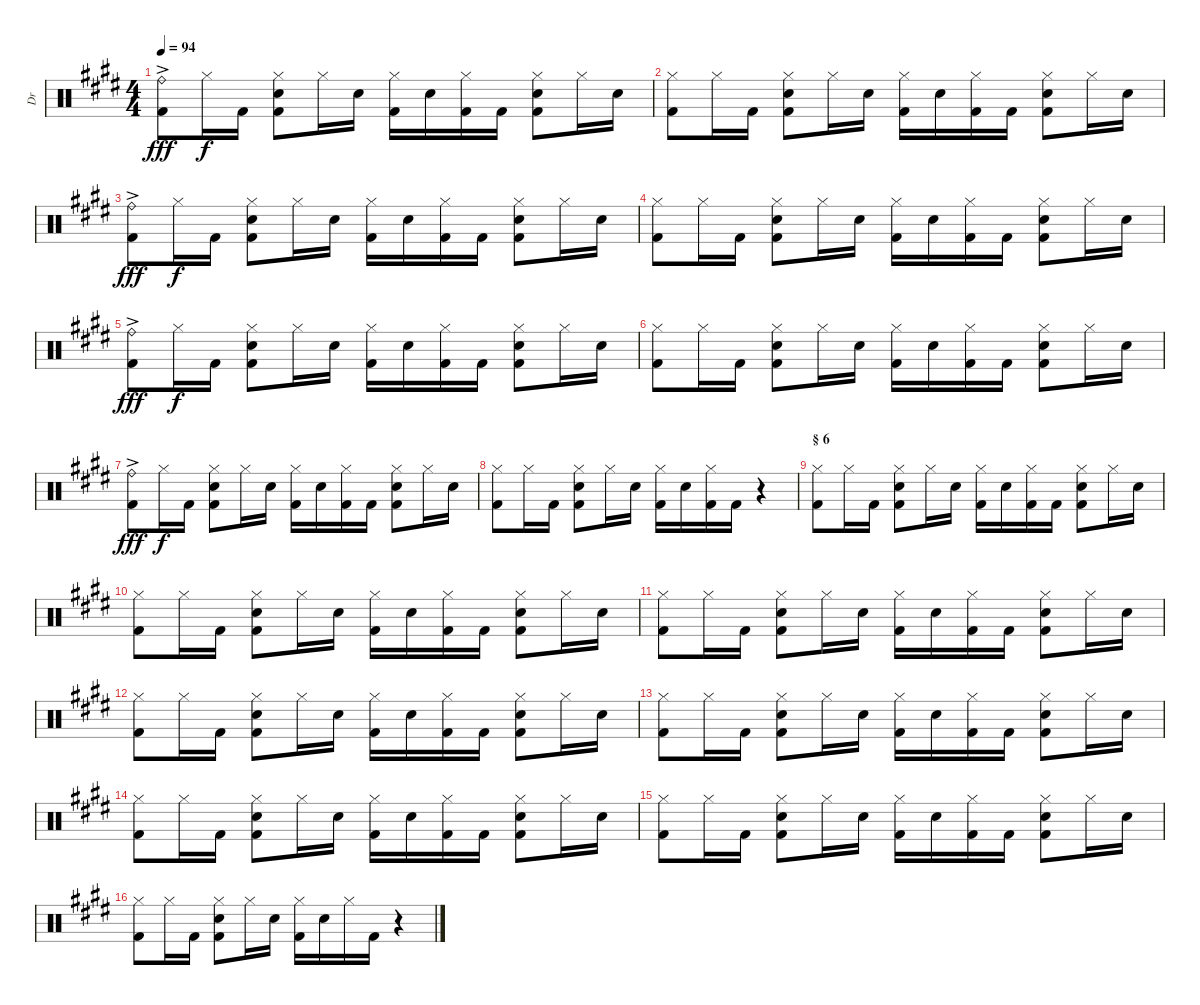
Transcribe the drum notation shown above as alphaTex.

\track ("Dr" "Dr") {instrument percussion}
\staff {score}
\articulation defaults
\ts (4 4)
\tempo 94
\clef neutral
\ks e
("Ride (bell)"{ac} "Kick (hit) 2"{ac}).8{dy fff} "Hi-Hat (closed)".16{dy f} "Kick (hit) 2".16 ("Hi-Hat (closed)" "Electric Snare (hit)" "Kick (hit) 2").8 "Hi-Hat (closed)".16 "Electric Snare (hit)".16 ("Hi-Hat (closed)" "Kick (hit) 2").16 "Electric Snare (hit)".16 ("Hi-Hat (closed)" "Kick (hit) 2").16 "Kick (hit) 2".16 ("Hi-Hat (closed)" "Electric Snare (hit)" "Kick (hit) 2").8 "Hi-Hat (closed)".16 "Electric Snare (hit)".16 |
("Hi-Hat (closed)" "Kick (hit) 2").8 "Hi-Hat (closed)".16 "Kick (hit) 2".16 ("Hi-Hat (closed)" "Electric Snare (hit)" "Kick (hit) 2").8 "Hi-Hat (closed)".16 "Electric Snare (hit)".16 ("Hi-Hat (closed)" "Kick (hit) 2").16 "Electric Snare (hit)".16 ("Hi-Hat (closed)" "Kick (hit) 2").16 "Kick (hit) 2".16 ("Hi-Hat (closed)" "Electric Snare (hit)" "Kick (hit) 2").8 "Hi-Hat (closed)".16 "Electric Snare (hit)".16 |
("Ride (bell)"{ac} "Kick (hit) 2"{ac}).8{dy fff} "Hi-Hat (closed)".16{dy f} "Kick (hit) 2".16 ("Hi-Hat (closed)" "Electric Snare (hit)" "Kick (hit) 2").8 "Hi-Hat (closed)".16 "Electric Snare (hit)".16 ("Hi-Hat (closed)" "Kick (hit) 2").16 "Electric Snare (hit)".16 ("Hi-Hat (closed)" "Kick (hit) 2").16 "Kick (hit) 2".16 ("Hi-Hat (closed)" "Electric Snare (hit)" "Kick (hit) 2").8 "Hi-Hat (closed)".16 "Electric Snare (hit)".16 |
("Hi-Hat (closed)" "Kick (hit) 2").8 "Hi-Hat (closed)".16 "Kick (hit) 2".16 ("Hi-Hat (closed)" "Electric Snare (hit)" "Kick (hit) 2").8 "Hi-Hat (closed)".16 "Electric Snare (hit)".16 ("Hi-Hat (closed)" "Kick (hit) 2").16 "Electric Snare (hit)".16 ("Hi-Hat (closed)" "Kick (hit) 2").16 "Kick (hit) 2".16 ("Hi-Hat (closed)" "Electric Snare (hit)" "Kick (hit) 2").8 "Hi-Hat (closed)".16 "Electric Snare (hit)".16 |
("Ride (bell)"{ac} "Kick (hit) 2"{ac}).8{dy fff} "Hi-Hat (closed)".16{dy f} "Kick (hit) 2".16 ("Hi-Hat (closed)" "Electric Snare (hit)" "Kick (hit) 2").8 "Hi-Hat (closed)".16 "Electric Snare (hit)".16 ("Hi-Hat (closed)" "Kick (hit) 2").16 "Electric Snare (hit)".16 ("Hi-Hat (closed)" "Kick (hit) 2").16 "Kick (hit) 2".16 ("Hi-Hat (closed)" "Electric Snare (hit)" "Kick (hit) 2").8 "Hi-Hat (closed)".16 "Electric Snare (hit)".16 |
("Hi-Hat (closed)" "Kick (hit) 2").8 "Hi-Hat (closed)".16 "Kick (hit) 2".16 ("Hi-Hat (closed)" "Electric Snare (hit)" "Kick (hit) 2").8 "Hi-Hat (closed)".16 "Electric Snare (hit)".16 ("Hi-Hat (closed)" "Kick (hit) 2").16 "Electric Snare (hit)".16 ("Hi-Hat (closed)" "Kick (hit) 2").16 "Kick (hit) 2".16 ("Hi-Hat (closed)" "Electric Snare (hit)" "Kick (hit) 2").8 "Hi-Hat (closed)".16 "Electric Snare (hit)".16 |
("Ride (bell)"{ac} "Kick (hit) 2"{ac}).8{dy fff} "Hi-Hat (closed)".16{dy f} "Kick (hit) 2".16 ("Hi-Hat (closed)" "Electric Snare (hit)" "Kick (hit) 2").8 "Hi-Hat (closed)".16 "Electric Snare (hit)".16 ("Hi-Hat (closed)" "Kick (hit) 2").16 "Electric Snare (hit)".16 ("Hi-Hat (closed)" "Kick (hit) 2").16 "Kick (hit) 2".16 ("Hi-Hat (closed)" "Electric Snare (hit)" "Kick (hit) 2").8 "Hi-Hat (closed)".16 "Electric Snare (hit)".16 |
("Hi-Hat (closed)" "Kick (hit) 2").8 "Hi-Hat (closed)".16 "Kick (hit) 2".16 ("Hi-Hat (closed)" "Electric Snare (hit)" "Kick (hit) 2").8 "Hi-Hat (closed)".16 "Electric Snare (hit)".16 ("Hi-Hat (closed)" "Kick (hit) 2").16 "Electric Snare (hit)".16 ("Hi-Hat (closed)" "Kick (hit) 2").16 "Kick (hit) 2".16 r.4 |
\section ("" "§ 6")
("Hi-Hat (closed)" "Kick (hit) 2").8 "Hi-Hat (closed)".16 "Kick (hit) 2".16 ("Hi-Hat (closed)" "Electric Snare (hit)" "Kick (hit) 2").8 "Hi-Hat (closed)".16 "Electric Snare (hit)".16 ("Hi-Hat (closed)" "Kick (hit) 2").16 "Electric Snare (hit)".16 ("Hi-Hat (closed)" "Kick (hit) 2").16 "Kick (hit) 2".16 ("Hi-Hat (closed)" "Electric Snare (hit)" "Kick (hit) 2").8 "Hi-Hat (closed)".16 "Electric Snare (hit)".16 |
("Hi-Hat (closed)" "Kick (hit) 2").8 "Hi-Hat (closed)".16 "Kick (hit) 2".16 ("Hi-Hat (closed)" "Electric Snare (hit)" "Kick (hit) 2").8 "Hi-Hat (closed)".16 "Electric Snare (hit)".16 ("Hi-Hat (closed)" "Kick (hit) 2").16 "Electric Snare (hit)".16 ("Hi-Hat (closed)" "Kick (hit) 2").16 "Kick (hit) 2".16 ("Hi-Hat (closed)" "Electric Snare (hit)" "Kick (hit) 2").8 "Hi-Hat (closed)".16 "Electric Snare (hit)".16 |
("Hi-Hat (closed)" "Kick (hit) 2").8 "Hi-Hat (closed)".16 "Kick (hit) 2".16 ("Hi-Hat (closed)" "Electric Snare (hit)" "Kick (hit) 2").8 "Hi-Hat (closed)".16 "Electric Snare (hit)".16 ("Hi-Hat (closed)" "Kick (hit) 2").16 "Electric Snare (hit)".16 ("Hi-Hat (closed)" "Kick (hit) 2").16 "Kick (hit) 2".16 ("Hi-Hat (closed)" "Electric Snare (hit)" "Kick (hit) 2").8 "Hi-Hat (closed)".16 "Electric Snare (hit)".16 |
("Hi-Hat (closed)" "Kick (hit) 2").8 "Hi-Hat (closed)".16 "Kick (hit) 2".16 ("Hi-Hat (closed)" "Electric Snare (hit)" "Kick (hit) 2").8 "Hi-Hat (closed)".16 "Electric Snare (hit)".16 ("Hi-Hat (closed)" "Kick (hit) 2").16 "Electric Snare (hit)".16 ("Hi-Hat (closed)" "Kick (hit) 2").16 "Kick (hit) 2".16 ("Hi-Hat (closed)" "Electric Snare (hit)" "Kick (hit) 2").8 "Hi-Hat (closed)".16 "Electric Snare (hit)".16 |
("Hi-Hat (closed)" "Kick (hit) 2").8 "Hi-Hat (closed)".16 "Kick (hit) 2".16 ("Hi-Hat (closed)" "Electric Snare (hit)" "Kick (hit) 2").8 "Hi-Hat (closed)".16 "Electric Snare (hit)".16 ("Hi-Hat (closed)" "Kick (hit) 2").16 "Electric Snare (hit)".16 ("Hi-Hat (closed)" "Kick (hit) 2").16 "Kick (hit) 2".16 ("Hi-Hat (closed)" "Electric Snare (hit)" "Kick (hit) 2").8 "Hi-Hat (closed)".16 "Electric Snare (hit)".16 |
("Hi-Hat (closed)" "Kick (hit) 2").8 "Hi-Hat (closed)".16 "Kick (hit) 2".16 ("Hi-Hat (closed)" "Electric Snare (hit)" "Kick (hit) 2").8 "Hi-Hat (closed)".16 "Electric Snare (hit)".16 ("Hi-Hat (closed)" "Kick (hit) 2").16 "Electric Snare (hit)".16 ("Hi-Hat (closed)" "Kick (hit) 2").16 "Kick (hit) 2".16 ("Hi-Hat (closed)" "Electric Snare (hit)" "Kick (hit) 2").8 "Hi-Hat (closed)".16 "Electric Snare (hit)".16 |
("Hi-Hat (closed)" "Kick (hit) 2").8 "Hi-Hat (closed)".16 "Kick (hit) 2".16 ("Hi-Hat (closed)" "Electric Snare (hit)" "Kick (hit) 2").8 "Hi-Hat (closed)".16 "Electric Snare (hit)".16 ("Hi-Hat (closed)" "Kick (hit) 2").16 "Electric Snare (hit)".16 ("Hi-Hat (closed)" "Kick (hit) 2").16 "Kick (hit) 2".16 ("Hi-Hat (closed)" "Electric Snare (hit)" "Kick (hit) 2").8 "Hi-Hat (closed)".16 "Electric Snare (hit)".16 |
("Hi-Hat (closed)" "Kick (hit) 2").8 "Hi-Hat (closed)".16 "Kick (hit) 2".16 ("Hi-Hat (closed)" "Electric Snare (hit)" "Kick (hit) 2").8 "Hi-Hat (closed)".16 "Electric Snare (hit)".16 ("Hi-Hat (closed)" "Kick (hit) 2").16 "Electric Snare (hit)".16 "Hi-Hat (closed)".16 "Kick (hit) 2".16 r.4
